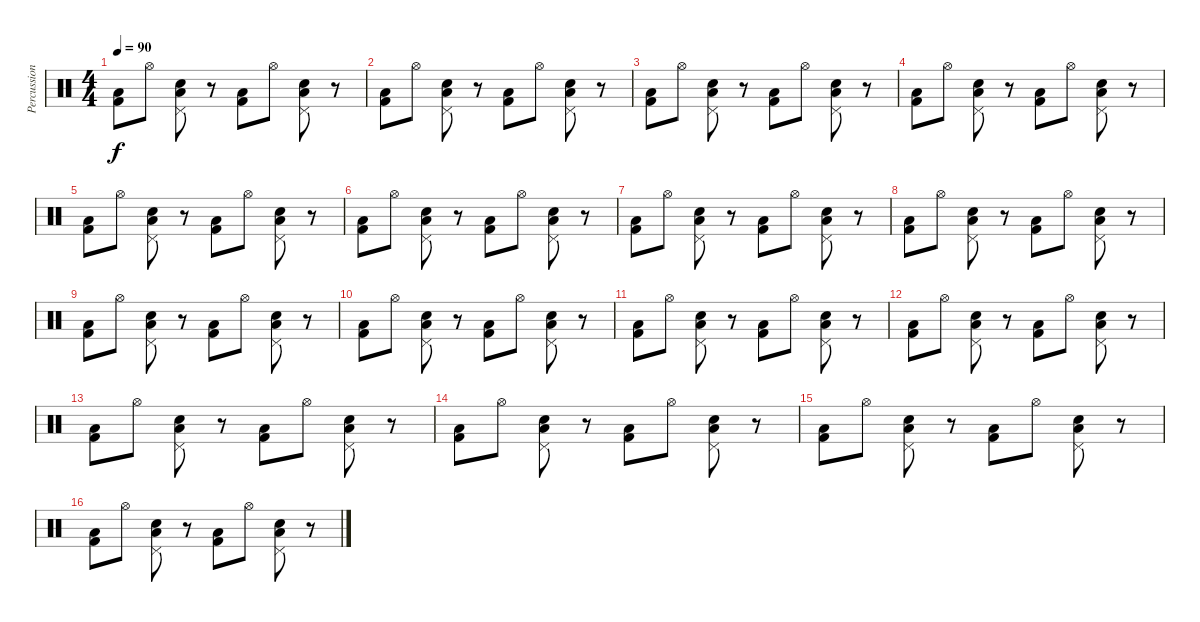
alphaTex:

\track ("Percussion" "Percussion") {instrument percussion}
\staff {score}
\articulation defaults
\ts (4 4)
\tempo 90
\clef neutral
\ks c
("Low Floor Tom (hit)" "Kick (hit) 2").8{dy f} "Hi-Hat (open)".8 ("Pedal Hi-Hat (hit)" "Low Floor Tom (hit)" "Snare (hit) 2").8 r.8 ("Low Floor Tom (hit)" "Kick (hit) 2").8 "Hi-Hat (open)".8 ("Pedal Hi-Hat (hit)" "Low Floor Tom (hit)" "Snare (hit) 2").8 r.8 |
("Low Floor Tom (hit)" "Kick (hit) 2").8 "Hi-Hat (open)".8 ("Pedal Hi-Hat (hit)" "Low Floor Tom (hit)" "Snare (hit) 2").8 r.8 ("Low Floor Tom (hit)" "Kick (hit) 2").8 "Hi-Hat (open)".8 ("Pedal Hi-Hat (hit)" "Low Floor Tom (hit)" "Snare (hit) 2").8 r.8 |
("Low Floor Tom (hit)" "Kick (hit) 2").8 "Hi-Hat (open)".8 ("Pedal Hi-Hat (hit)" "Low Floor Tom (hit)" "Snare (hit) 2").8 r.8 ("Low Floor Tom (hit)" "Kick (hit) 2").8 "Hi-Hat (open)".8 ("Pedal Hi-Hat (hit)" "Low Floor Tom (hit)" "Snare (hit) 2").8 r.8 |
("Low Floor Tom (hit)" "Kick (hit) 2").8 "Hi-Hat (open)".8 ("Pedal Hi-Hat (hit)" "Low Floor Tom (hit)" "Snare (hit) 2").8 r.8 ("Low Floor Tom (hit)" "Kick (hit) 2").8 "Hi-Hat (open)".8 ("Pedal Hi-Hat (hit)" "Low Floor Tom (hit)" "Snare (hit) 2").8 r.8 |
("Low Floor Tom (hit)" "Kick (hit) 2").8 "Hi-Hat (open)".8 ("Pedal Hi-Hat (hit)" "Low Floor Tom (hit)" "Snare (hit) 2").8 r.8 ("Low Floor Tom (hit)" "Kick (hit) 2").8 "Hi-Hat (open)".8 ("Pedal Hi-Hat (hit)" "Low Floor Tom (hit)" "Snare (hit) 2").8 r.8 |
("Low Floor Tom (hit)" "Kick (hit) 2").8 "Hi-Hat (open)".8 ("Pedal Hi-Hat (hit)" "Low Floor Tom (hit)" "Snare (hit) 2").8 r.8 ("Low Floor Tom (hit)" "Kick (hit) 2").8 "Hi-Hat (open)".8 ("Pedal Hi-Hat (hit)" "Low Floor Tom (hit)" "Snare (hit) 2").8 r.8 |
("Low Floor Tom (hit)" "Kick (hit) 2").8 "Hi-Hat (open)".8 ("Pedal Hi-Hat (hit)" "Low Floor Tom (hit)" "Snare (hit) 2").8 r.8 ("Low Floor Tom (hit)" "Kick (hit) 2").8 "Hi-Hat (open)".8 ("Pedal Hi-Hat (hit)" "Low Floor Tom (hit)" "Snare (hit) 2").8 r.8 |
("Low Floor Tom (hit)" "Kick (hit) 2").8 "Hi-Hat (open)".8 ("Pedal Hi-Hat (hit)" "Low Floor Tom (hit)" "Snare (hit) 2").8 r.8 ("Low Floor Tom (hit)" "Kick (hit) 2").8 "Hi-Hat (open)".8 ("Pedal Hi-Hat (hit)" "Low Floor Tom (hit)" "Snare (hit) 2").8 r.8 |
("Low Floor Tom (hit)" "Kick (hit) 2").8 "Hi-Hat (open)".8 ("Pedal Hi-Hat (hit)" "Low Floor Tom (hit)" "Snare (hit) 2").8 r.8 ("Low Floor Tom (hit)" "Kick (hit) 2").8 "Hi-Hat (open)".8 ("Pedal Hi-Hat (hit)" "Low Floor Tom (hit)" "Snare (hit) 2").8 r.8 |
("Low Floor Tom (hit)" "Kick (hit) 2").8 "Hi-Hat (open)".8 ("Pedal Hi-Hat (hit)" "Low Floor Tom (hit)" "Snare (hit) 2").8 r.8 ("Low Floor Tom (hit)" "Kick (hit) 2").8 "Hi-Hat (open)".8 ("Pedal Hi-Hat (hit)" "Low Floor Tom (hit)" "Snare (hit) 2").8 r.8 |
("Low Floor Tom (hit)" "Kick (hit) 2").8 "Hi-Hat (open)".8 ("Pedal Hi-Hat (hit)" "Low Floor Tom (hit)" "Snare (hit) 2").8 r.8 ("Low Floor Tom (hit)" "Kick (hit) 2").8 "Hi-Hat (open)".8 ("Pedal Hi-Hat (hit)" "Low Floor Tom (hit)" "Snare (hit) 2").8 r.8 |
("Low Floor Tom (hit)" "Kick (hit) 2").8 "Hi-Hat (open)".8 ("Pedal Hi-Hat (hit)" "Low Floor Tom (hit)" "Snare (hit) 2").8 r.8 ("Low Floor Tom (hit)" "Kick (hit) 2").8 "Hi-Hat (open)".8 ("Pedal Hi-Hat (hit)" "Low Floor Tom (hit)" "Snare (hit) 2").8 r.8 |
("Low Floor Tom (hit)" "Kick (hit) 2").8 "Hi-Hat (open)".8 ("Pedal Hi-Hat (hit)" "Low Floor Tom (hit)" "Snare (hit) 2").8 r.8 ("Low Floor Tom (hit)" "Kick (hit) 2").8 "Hi-Hat (open)".8 ("Pedal Hi-Hat (hit)" "Low Floor Tom (hit)" "Snare (hit) 2").8 r.8 |
("Low Floor Tom (hit)" "Kick (hit) 2").8 "Hi-Hat (open)".8 ("Pedal Hi-Hat (hit)" "Low Floor Tom (hit)" "Snare (hit) 2").8 r.8 ("Low Floor Tom (hit)" "Kick (hit) 2").8 "Hi-Hat (open)".8 ("Pedal Hi-Hat (hit)" "Low Floor Tom (hit)" "Snare (hit) 2").8 r.8 |
("Low Floor Tom (hit)" "Kick (hit) 2").8 "Hi-Hat (open)".8 ("Pedal Hi-Hat (hit)" "Low Floor Tom (hit)" "Snare (hit) 2").8 r.8 ("Low Floor Tom (hit)" "Kick (hit) 2").8 "Hi-Hat (open)".8 ("Pedal Hi-Hat (hit)" "Low Floor Tom (hit)" "Snare (hit) 2").8 r.8 |
("Low Floor Tom (hit)" "Kick (hit) 2").8 "Hi-Hat (open)".8 ("Pedal Hi-Hat (hit)" "Low Floor Tom (hit)" "Snare (hit) 2").8 r.8 ("Low Floor Tom (hit)" "Kick (hit) 2").8 "Hi-Hat (open)".8 ("Pedal Hi-Hat (hit)" "Low Floor Tom (hit)" "Snare (hit) 2").8 r.8
